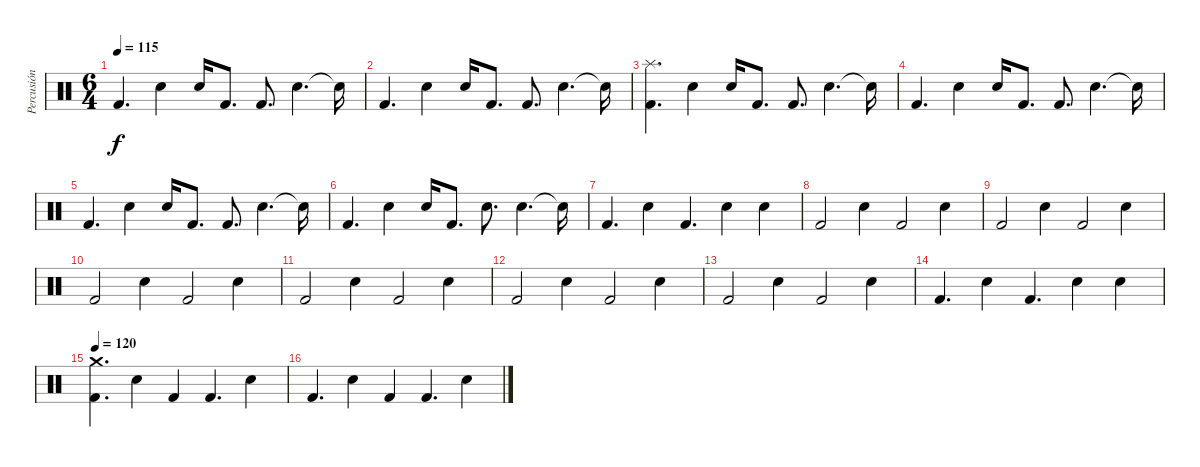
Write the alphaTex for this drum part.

\track ("Percusión" "Percusión") {instrument percussion}
\staff {score}
\articulation defaults
\ts (6 4)
\tempo 115
\clef neutral
\ks c "Kick (hit) 2".4{d dy f} "Snare (hit) 2".4 "Snare (hit) 2".16 "Kick (hit) 2".8{d} "Kick (hit) 2".8{d} "Snare (hit) 2".4{d} "Snare (hit)"{t}.16
|
"Kick (hit) 2".4{d} "Snare (hit) 2".4 "Snare (hit) 2".16 "Kick (hit) 2".8{d} "Kick (hit) 2".8{d} "Snare (hit) 2".4{d} "Snare (hit)"{t}.16 |
("Kick (hit) 2" "Splash (hit)").4{d} "Snare (hit) 2".4 "Snare (hit) 2".16 "Kick (hit) 2".8{d} "Kick (hit) 2".8{d} "Snare (hit) 2".4{d} "Snare (hit)"{t}.16 |
"Kick (hit) 2".4{d} "Snare (hit) 2".4 "Snare (hit) 2".16 "Kick (hit) 2".8{d} "Kick (hit) 2".8{d} "Snare (hit) 2".4{d} "Snare (hit)"{t}.16 |
"Kick (hit) 2".4{d} "Snare (hit) 2".4 "Snare (hit) 2".16 "Kick (hit) 2".8{d} "Kick (hit) 2".8{d} "Snare (hit) 2".4{d} "Snare (hit)"{t}.16 |
"Kick (hit) 2".4{d} "Snare (hit) 2".4 "Snare (hit) 2".16 "Kick (hit) 2".8{d} "Snare (hit) 2".8{d} "Snare (hit) 2".4{d} "Snare (hit) 2"{t}.16 |
"Kick (hit) 2".4{d} "Snare (hit) 2".4 "Kick (hit) 2".4{d} "Snare (hit) 2".4 "Snare (hit) 2".4 |
"Kick (hit) 2".2 "Snare (hit) 2".4 "Kick (hit) 2".2 "Snare (hit) 2".4 |
"Kick (hit) 2".2 "Snare (hit) 2".4 "Kick (hit) 2".2 "Snare (hit) 2".4 |
"Kick (hit) 2".2 "Snare (hit) 2".4 "Kick (hit) 2".2 "Snare (hit) 2".4 |
"Kick (hit) 2".2 "Snare (hit) 2".4 "Kick (hit) 2".2 "Snare (hit) 2".4 |
"Kick (hit) 2".2 "Snare (hit) 2".4 "Kick (hit) 2".2 "Snare (hit) 2".4 |
"Kick (hit) 2".2 "Snare (hit) 2".4 "Kick (hit) 2".2 "Snare (hit) 2".4 |
"Kick (hit) 2".4{d} "Snare (hit) 2".4 "Kick (hit) 2".4{d} "Snare (hit) 2".4 "Snare (hit) 2".4 |
\tempo 120
("Kick (hit) 2" "Crash medium (hit)").4{d} "Electric Snare (hit)".4 "Kick (hit) 2".4 "Kick (hit) 2".4{d} "Electric Snare (hit)".4 |
"Kick (hit) 2".4{d} "Electric Snare (hit)".4 "Kick (hit) 2".4 "Kick (hit) 2".4{d} "Electric Snare (hit)".4
